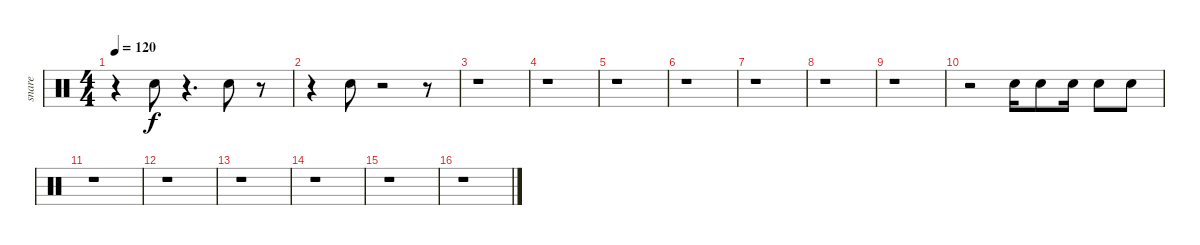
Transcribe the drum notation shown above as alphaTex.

\track ("snare" "snare") {instrument percussion}
\staff {score}
\articulation defaults
\ts (4 4)
\tempo 120
\clef neutral
\ks c
r.4{dy f} "Electric Snare (hit)".8 r.4{d} "Electric Snare (hit)".8 r.8 |
r.4 "Electric Snare (hit)".8 r.2 r.8 |
r.1 |
r.1 |
r.1 |
r.1 |
r.1 |
r.1 |
r.1 |
r.2 "Electric Snare (hit)".16 "Electric Snare (hit)".8 "Electric Snare (hit)".16 "Electric Snare (hit)".8 "Electric Snare (hit)".8 |
r.1 |
r.1 |
r.1 |
r.1 |
r.1 |
r.1
